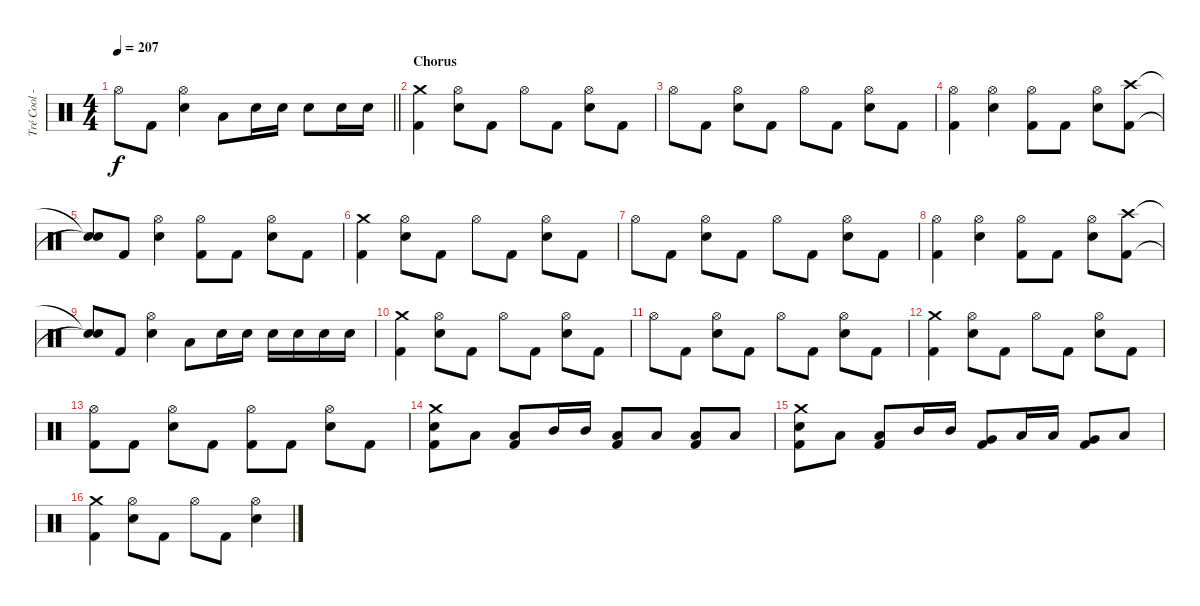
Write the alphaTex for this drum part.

\track ("Tré Cool - Drums" "Tré Cool -") {instrument percussion}
\staff {score}
\articulation defaults
\ts (4 4)
\tempo 207
\clef neutral
\barLineRight lightlight
\ks c "Hi-Hat (open)".8{dy f} "Kick (hit) 2".8
("Hi-Hat (open)" "Electric Snare (hit)").4 "Low Tom (hit)".8 "Electric Snare (hit)".16 "Electric Snare (hit)".16 "Electric Snare (hit)".8 "Electric Snare (hit)".16 "Electric Snare (hit)".16 |
\section ("" "Chorus")
("Crash medium (hit)" "Kick (hit) 2").4 ("Hi-Hat (open)" "Electric Snare (hit)").8 "Kick (hit) 2".8 "Hi-Hat (open)".8 "Kick (hit) 2".8 ("Hi-Hat (open)" "Electric Snare (hit)").8 "Kick (hit) 2".8 |
"Hi-Hat (open)".8 "Kick (hit) 2".8 ("Hi-Hat (open)" "Electric Snare (hit)").8 "Kick (hit) 2".8 "Hi-Hat (open)".8 "Kick (hit) 2".8 ("Hi-Hat (open)" "Electric Snare (hit)").8 "Kick (hit) 2".8 |
("Hi-Hat (open)" "Kick (hit) 2").4 ("Hi-Hat (open)" "Electric Snare (hit)").4 ("Hi-Hat (open)" "Kick (hit) 2").8 "Kick (hit) 2".8 ("Hi-Hat (open)" "Electric Snare (hit)").8 ("Crash high (hit)" "Kick (hit) 2").8 |
("Snare (hit)"{t} "Snare (hit)"{t}).8 "Kick (hit) 2".8 ("Hi-Hat (open)" "Electric Snare (hit)").4 ("Hi-Hat (open)" "Kick (hit) 2").8 "Kick (hit) 2".8 ("Hi-Hat (open)" "Electric Snare (hit)").8 "Kick (hit) 2".8 |
("Crash medium (hit)" "Kick (hit) 2").4 ("Hi-Hat (open)" "Electric Snare (hit)").8 "Kick (hit) 2".8 "Hi-Hat (open)".8 "Kick (hit) 2".8 ("Hi-Hat (open)" "Electric Snare (hit)").8 "Kick (hit) 2".8 |
"Hi-Hat (open)".8 "Kick (hit) 2".8 ("Hi-Hat (open)" "Electric Snare (hit)").8 "Kick (hit) 2".8 "Hi-Hat (open)".8 "Kick (hit) 2".8 ("Hi-Hat (open)" "Electric Snare (hit)").8 "Kick (hit) 2".8 |
("Hi-Hat (open)" "Kick (hit) 2").4 ("Hi-Hat (open)" "Electric Snare (hit)").4 ("Hi-Hat (open)" "Kick (hit) 2").8 "Kick (hit) 2".8 ("Hi-Hat (open)" "Electric Snare (hit)").8 ("Crash high (hit)" "Kick (hit) 2").8 |
("Snare (hit)"{t} "Snare (hit)"{t}).8 "Kick (hit) 2".8 ("Hi-Hat (open)" "Electric Snare (hit)").4 "Low Tom (hit)".8 "Electric Snare (hit)".16 "Electric Snare (hit)".16 "Electric Snare (hit)".16 "Electric Snare (hit)".16 "Electric Snare (hit)".16 "Electric Snare (hit)".16 |
("Crash medium (hit)" "Kick (hit) 2").4 ("Hi-Hat (open)" "Electric Snare (hit)").8 "Kick (hit) 2".8 "Hi-Hat (open)".8 "Kick (hit) 2".8 ("Hi-Hat (open)" "Electric Snare (hit)").8 "Kick (hit) 2".8 |
"Hi-Hat (open)".8 "Kick (hit) 2".8 ("Hi-Hat (open)" "Electric Snare (hit)").8 "Kick (hit) 2".8 "Hi-Hat (open)".8 "Kick (hit) 2".8 ("Hi-Hat (open)" "Electric Snare (hit)").8 "Kick (hit) 2".8 |
("Crash medium (hit)" "Kick (hit) 2").4 ("Hi-Hat (open)" "Electric Snare (hit)").8 "Kick (hit) 2".8 "Hi-Hat (open)".8 "Kick (hit) 2".8 ("Hi-Hat (open)" "Electric Snare (hit)").8 "Kick (hit) 2".8 |
("Hi-Hat (open)" "Kick (hit) 2").8 "Kick (hit) 2".8 ("Hi-Hat (open)" "Electric Snare (hit)").8 "Kick (hit) 2".8 ("Hi-Hat (open)" "Kick (hit) 2").8 "Kick (hit) 2".8 ("Hi-Hat (open)" "Electric Snare (hit)").8 "Kick (hit) 2".8 |
("Crash medium (hit)" "Electric Snare (hit)" "Kick (hit) 2").8 "Low Floor Tom (hit)".8 ("Low Floor Tom (hit)" "Kick (hit) 2").8 "Mid Tom (hit)".16 "Mid Tom (hit)".16 ("Low Tom (hit)" "Kick (hit) 2").8 "Low Floor Tom (hit)".8 ("Low Floor Tom (hit)" "Kick (hit) 2").8 "Low Floor Tom (hit)".8 |
("Crash medium (hit)" "Electric Snare (hit)" "Kick (hit) 2").8 "Low Floor Tom (hit)".8 ("Low Floor Tom (hit)" "Kick (hit) 2").8 "Mid Tom (hit)".16 "Mid Tom (hit)".16 ("Very Low Tom (hit)" "Kick (hit) 2").8 "Low Tom (hit)".16 "Low Tom (hit)".16 ("Very Low Tom (hit)" "Kick (hit) 2").8 "Low Floor Tom (hit)".8 |
("Crash medium (hit)" "Kick (hit) 2").4 ("Hi-Hat (open)" "Electric Snare (hit)").8 "Kick (hit) 2".8 "Hi-Hat (open)".8 "Kick (hit) 2".8 ("Hi-Hat (open)" "Electric Snare (hit)").4
